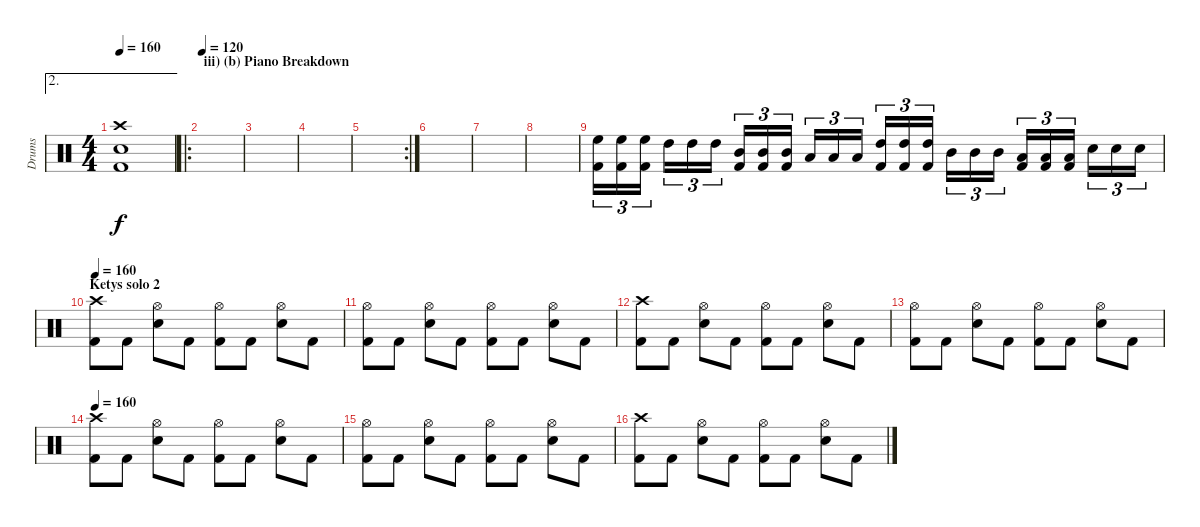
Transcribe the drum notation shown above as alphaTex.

\track ("Drums" "Drums") {instrument percussion}
\staff {score}
\articulation defaults
\ae 2
\ts (4 4)
\tempo 160
\clef neutral
\ks c
("Crash high (hit)" "Electric Snare (hit)" "Kick (hit) 2").1{dy f} |
\ro
\section ("" "iii) (b) Piano Breakdown")
\tempo 120
|
|
|
\rc 2
|
|
|
|
("High Floor Tom (hit)" "Kick (hit) 2").16{tu (3 2)} ("High Floor Tom (hit)" "Kick (hit) 2").16{tu (3 2)} ("High Floor Tom (hit)" "Kick (hit) 2").16{tu (3 2)} "High Tom (hit)".16{tu (3 2)} "High Tom (hit)".16{tu (3 2)} "High Tom (hit)".16{tu (3 2)} ("Mid Tom (hit)" "Kick (hit) 2").16{tu (3 2)} ("Mid Tom (hit)" "Kick (hit) 2").16{tu (3 2)} ("Mid Tom (hit)" "Kick (hit) 2").16{tu (3 2)} "Low Tom (hit)".16{tu (3 2)} "Low Tom (hit)".16{tu (3 2)} "Low Tom (hit)".16{tu (3 2)} ("High Tom (hit)" "Kick (hit) 2").16{tu (3 2)} ("High Tom (hit)" "Kick (hit) 2").16{tu (3 2)} ("High Tom (hit)" "Kick (hit) 2").16{tu (3 2)} "Mid Tom (hit)".16{tu (3 2)} "Mid Tom (hit)".16{tu (3 2)} "Mid Tom (hit)".16{tu (3 2)} ("Low Tom (hit)" "Kick (hit) 2").16{tu (3 2)} ("Low Tom (hit)" "Kick (hit) 2").16{tu (3 2)} ("Low Tom (hit)" "Kick (hit) 2").16{tu (3 2)} "Snare (hit) 2".16{tu (3 2)} "Snare (hit) 2".16{tu (3 2)} "Snare (hit) 2".16{tu (3 2)} |
\section ("" "Ketys solo 2")
\tempo 160
("Crash high (hit)" "Kick (hit) 2").8 "Kick (hit) 2".8 ("Hi-Hat (open)" "Electric Snare (hit)").8 "Kick (hit) 2".8 ("Hi-Hat (open)" "Kick (hit) 2").8 "Kick (hit) 2".8 ("Hi-Hat (open)" "Electric Snare (hit)").8 "Kick (hit) 2".8 |
("Hi-Hat (open)" "Kick (hit) 2").8 "Kick (hit) 2".8 ("Hi-Hat (open)" "Electric Snare (hit)").8 "Kick (hit) 2".8 ("Hi-Hat (open)" "Kick (hit) 2").8 "Kick (hit) 2".8 ("Hi-Hat (open)" "Electric Snare (hit)").8 "Kick (hit) 2".8 |
("Crash high (hit)" "Kick (hit) 2").8 "Kick (hit) 2".8 ("Hi-Hat (open)" "Electric Snare (hit)").8 "Kick (hit) 2".8 ("Hi-Hat (open)" "Kick (hit) 2").8 "Kick (hit) 2".8 ("Hi-Hat (open)" "Electric Snare (hit)").8 "Kick (hit) 2".8 |
("Hi-Hat (open)" "Kick (hit) 2").8 "Kick (hit) 2".8 ("Hi-Hat (open)" "Electric Snare (hit)").8 "Kick (hit) 2".8 ("Hi-Hat (open)" "Kick (hit) 2").8 "Kick (hit) 2".8 ("Hi-Hat (open)" "Electric Snare (hit)").8 "Kick (hit) 2".8 |
\tempo 160
("Crash high (hit)" "Kick (hit) 2").8 "Kick (hit) 2".8 ("Hi-Hat (open)" "Electric Snare (hit)").8 "Kick (hit) 2".8 ("Hi-Hat (open)" "Kick (hit) 2").8 "Kick (hit) 2".8 ("Hi-Hat (open)" "Electric Snare (hit)").8 "Kick (hit) 2".8 |
("Hi-Hat (open)" "Kick (hit) 2").8 "Kick (hit) 2".8 ("Hi-Hat (open)" "Electric Snare (hit)").8 "Kick (hit) 2".8 ("Hi-Hat (open)" "Kick (hit) 2").8 "Kick (hit) 2".8 ("Hi-Hat (open)" "Electric Snare (hit)").8 "Kick (hit) 2".8 |
("Crash high (hit)" "Kick (hit) 2").8 "Kick (hit) 2".8 ("Hi-Hat (open)" "Electric Snare (hit)").8 "Kick (hit) 2".8 ("Hi-Hat (open)" "Kick (hit) 2").8 "Kick (hit) 2".8 ("Hi-Hat (open)" "Electric Snare (hit)").8 "Kick (hit) 2".8
